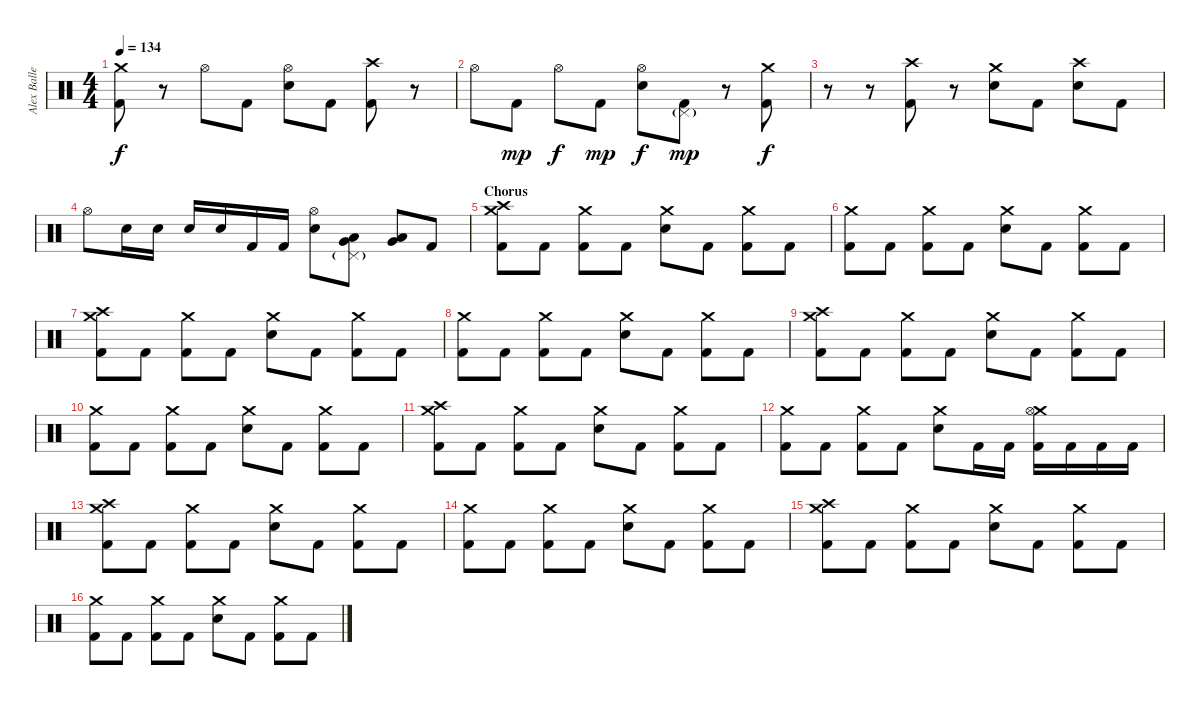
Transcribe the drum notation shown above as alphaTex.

\track ("Alex Ballew" "Alex Balle") {instrument percussion}
\staff {score}
\articulation defaults
\ts (4 4)
\tempo 134
\clef neutral
\ks c
("Crash medium (hit)" "Kick (hit) 2").8{dy f} r.8 "Hi-Hat (open)".8 "Kick (hit) 2".8 ("Hi-Hat (open)" "Electric Snare (hit)").8 "Kick (hit) 2".8 ("Crash high (hit)" "Kick (hit) 2").8 r.8 |
"Hi-Hat (open)".8 "Kick (hit) 2".8{dy mp} "Hi-Hat (open)".8{dy f} "Kick (hit) 2".8{dy mp} ("Hi-Hat (open)" "Electric Snare (hit)").8{dy f} ("Pedal Hi-Hat (hit)"{g} "Kick (hit) 2").8{dy mp} r.8 ("Crash medium (hit)" "Kick (hit) 2").8{dy f} |
r.8 r.8 ("Crash high (hit)" "Kick (hit) 2").8 r.8 ("Crash medium (hit)" "Electric Snare (hit)").8 "Kick (hit) 2".8 ("Crash high (hit)" "Electric Snare (hit)").8 "Kick (hit) 2".8 |
"Hi-Hat (open)".8 "Electric Snare (hit)".16 "Electric Snare (hit)".16 "Electric Snare (hit)".16 "Electric Snare (hit)".16 "Kick (hit) 2".16 "Kick (hit) 2".16 ("Hi-Hat (open)" "Electric Snare (hit)").8 ("Pedal Hi-Hat (hit)"{g} "Low Tom (hit)" "Very Low Tom (hit)").8 ("Low Tom (hit)" "Very Low Tom (hit)").8 "Kick (hit) 2".8 |
\section ("" "Chorus")
("Crash medium (hit)" "Crash high (hit)" "Kick (hit) 2").8 "Kick (hit) 2".8 ("Crash medium (hit)" "Kick (hit) 2").8 "Kick (hit) 2".8 ("Crash medium (hit)" "Electric Snare (hit)").8 "Kick (hit) 2".8 ("Crash medium (hit)" "Kick (hit) 2").8 "Kick (hit) 2".8 |
("Crash medium (hit)" "Kick (hit) 2").8 "Kick (hit) 2".8 ("Crash medium (hit)" "Kick (hit) 2").8 "Kick (hit) 2".8 ("Crash medium (hit)" "Electric Snare (hit)").8 "Kick (hit) 2".8 ("Crash medium (hit)" "Kick (hit) 2").8 "Kick (hit) 2".8 |
("Crash medium (hit)" "Crash high (hit)" "Kick (hit) 2").8 "Kick (hit) 2".8 ("Crash medium (hit)" "Kick (hit) 2").8 "Kick (hit) 2".8 ("Crash medium (hit)" "Electric Snare (hit)").8 "Kick (hit) 2".8 ("Crash medium (hit)" "Kick (hit) 2").8 "Kick (hit) 2".8 |
("Crash medium (hit)" "Kick (hit) 2").8 "Kick (hit) 2".8 ("Crash medium (hit)" "Kick (hit) 2").8 "Kick (hit) 2".8 ("Crash medium (hit)" "Electric Snare (hit)").8 "Kick (hit) 2".8 ("Crash medium (hit)" "Kick (hit) 2").8 "Kick (hit) 2".8 |
("Crash medium (hit)" "Crash high (hit)" "Kick (hit) 2").8 "Kick (hit) 2".8 ("Crash medium (hit)" "Kick (hit) 2").8 "Kick (hit) 2".8 ("Crash medium (hit)" "Electric Snare (hit)").8 "Kick (hit) 2".8 ("Crash medium (hit)" "Kick (hit) 2").8 "Kick (hit) 2".8 |
("Crash medium (hit)" "Kick (hit) 2").8 "Kick (hit) 2".8 ("Crash medium (hit)" "Kick (hit) 2").8 "Kick (hit) 2".8 ("Crash medium (hit)" "Electric Snare (hit)").8 "Kick (hit) 2".8 ("Crash medium (hit)" "Kick (hit) 2").8 "Kick (hit) 2".8 |
("Crash medium (hit)" "Crash high (hit)" "Kick (hit) 2").8 "Kick (hit) 2".8 ("Crash medium (hit)" "Kick (hit) 2").8 "Kick (hit) 2".8 ("Crash medium (hit)" "Electric Snare (hit)").8 "Kick (hit) 2".8 ("Crash medium (hit)" "Kick (hit) 2").8 "Kick (hit) 2".8 |
("Crash medium (hit)" "Kick (hit) 2").8 "Kick (hit) 2".8 ("Crash medium (hit)" "Kick (hit) 2").8 "Kick (hit) 2".8 ("Crash medium (hit)" "Electric Snare (hit)").8 "Kick (hit) 2".16 "Kick (hit) 2".16 ("Crash medium (hit)" "Hi-Hat (open)" "Kick (hit) 2").16 "Kick (hit) 2".16 "Kick (hit) 2".16 "Kick (hit) 2".16 |
("Crash medium (hit)" "Crash high (hit)" "Kick (hit) 2").8 "Kick (hit) 2".8 ("Crash medium (hit)" "Kick (hit) 2").8 "Kick (hit) 2".8 ("Crash medium (hit)" "Electric Snare (hit)").8 "Kick (hit) 2".8 ("Crash medium (hit)" "Kick (hit) 2").8 "Kick (hit) 2".8 |
("Crash medium (hit)" "Kick (hit) 2").8 "Kick (hit) 2".8 ("Crash medium (hit)" "Kick (hit) 2").8 "Kick (hit) 2".8 ("Crash medium (hit)" "Electric Snare (hit)").8 "Kick (hit) 2".8 ("Crash medium (hit)" "Kick (hit) 2").8 "Kick (hit) 2".8 |
("Crash medium (hit)" "Crash high (hit)" "Kick (hit) 2").8 "Kick (hit) 2".8 ("Crash medium (hit)" "Kick (hit) 2").8 "Kick (hit) 2".8 ("Crash medium (hit)" "Electric Snare (hit)").8 "Kick (hit) 2".8 ("Crash medium (hit)" "Kick (hit) 2").8 "Kick (hit) 2".8 |
("Crash medium (hit)" "Kick (hit) 2").8 "Kick (hit) 2".8 ("Crash medium (hit)" "Kick (hit) 2").8 "Kick (hit) 2".8 ("Crash medium (hit)" "Electric Snare (hit)").8 "Kick (hit) 2".8 ("Crash medium (hit)" "Kick (hit) 2").8 "Kick (hit) 2".8
